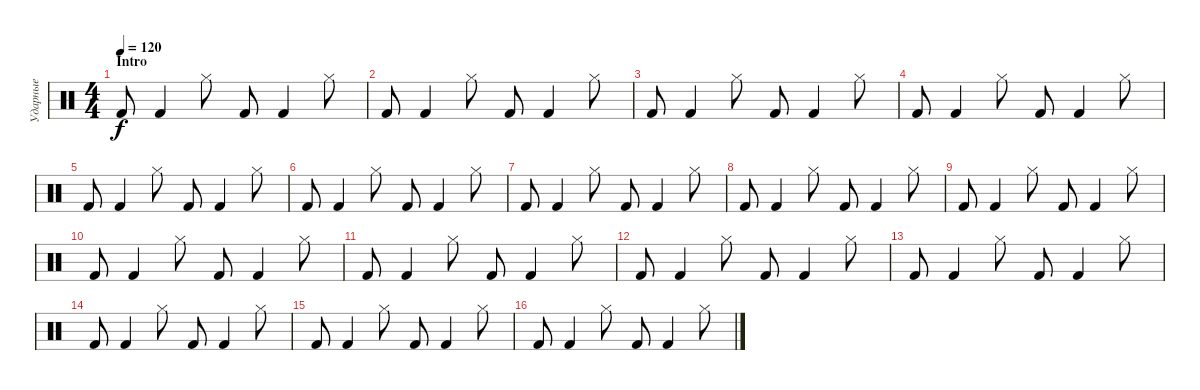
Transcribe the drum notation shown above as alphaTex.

\track ("Ударные" "Ударные") {instrument percussion}
\staff {score}
\articulation defaults
\ts (4 4)
\section ("" "Intro")
\tempo 120
\clef neutral
\ks c "Kick (hit) 2".8{dy f} "Kick (hit) 2".4 "Hi-Hat (closed)".8 "Kick (hit) 2".8 "Kick (hit) 2".4 "Hi-Hat (closed)".8
|
"Kick (hit) 2".8 "Kick (hit) 2".4 "Hi-Hat (closed)".8 "Kick (hit) 2".8 "Kick (hit) 2".4 "Hi-Hat (closed)".8 |
"Kick (hit) 2".8 "Kick (hit) 2".4 "Hi-Hat (closed)".8 "Kick (hit) 2".8 "Kick (hit) 2".4 "Hi-Hat (closed)".8 |
"Kick (hit) 2".8 "Kick (hit) 2".4 "Hi-Hat (closed)".8 "Kick (hit) 2".8 "Kick (hit) 2".4 "Hi-Hat (closed)".8 |
"Kick (hit) 2".8 "Kick (hit) 2".4 "Hi-Hat (closed)".8 "Kick (hit) 2".8 "Kick (hit) 2".4 "Hi-Hat (closed)".8 |
"Kick (hit) 2".8 "Kick (hit) 2".4 "Hi-Hat (closed)".8 "Kick (hit) 2".8 "Kick (hit) 2".4 "Hi-Hat (closed)".8 |
"Kick (hit) 2".8 "Kick (hit) 2".4 "Hi-Hat (closed)".8 "Kick (hit) 2".8 "Kick (hit) 2".4 "Hi-Hat (closed)".8 |
"Kick (hit) 2".8 "Kick (hit) 2".4 "Hi-Hat (closed)".8 "Kick (hit) 2".8 "Kick (hit) 2".4 "Hi-Hat (closed)".8 |
"Kick (hit) 2".8 "Kick (hit) 2".4 "Hi-Hat (closed)".8 "Kick (hit) 2".8 "Kick (hit) 2".4 "Hi-Hat (closed)".8 |
"Kick (hit) 2".8 "Kick (hit) 2".4 "Hi-Hat (closed)".8 "Kick (hit) 2".8 "Kick (hit) 2".4 "Hi-Hat (closed)".8 |
"Kick (hit) 2".8 "Kick (hit) 2".4 "Hi-Hat (closed)".8 "Kick (hit) 2".8 "Kick (hit) 2".4 "Hi-Hat (closed)".8 |
"Kick (hit) 2".8 "Kick (hit) 2".4 "Hi-Hat (closed)".8 "Kick (hit) 2".8 "Kick (hit) 2".4 "Hi-Hat (closed)".8 |
"Kick (hit) 2".8 "Kick (hit) 2".4 "Hi-Hat (closed)".8 "Kick (hit) 2".8 "Kick (hit) 2".4 "Hi-Hat (closed)".8 |
"Kick (hit) 2".8 "Kick (hit) 2".4 "Hi-Hat (closed)".8 "Kick (hit) 2".8 "Kick (hit) 2".4 "Hi-Hat (closed)".8 |
"Kick (hit) 2".8 "Kick (hit) 2".4 "Hi-Hat (closed)".8 "Kick (hit) 2".8 "Kick (hit) 2".4 "Hi-Hat (closed)".8 |
"Kick (hit) 2".8 "Kick (hit) 2".4 "Hi-Hat (closed)".8 "Kick (hit) 2".8 "Kick (hit) 2".4 "Hi-Hat (closed)".8
